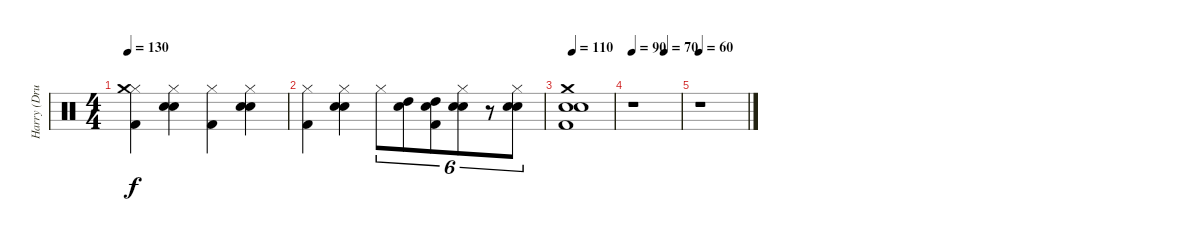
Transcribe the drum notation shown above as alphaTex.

\track ("Harry (Drums)" "Harry (Dru") {instrument percussion}
\staff {score}
\articulation defaults
\ts (4 4)
\tempo 130
\clef neutral
\ks c
("Hi-Hat (closed)" "Kick (hit) 2" "Crash medium (hit)").4{dy f} ("Hi-Hat (closed)" "Snare (hit) 2" "Electric Snare (hit)").4 ("Hi-Hat (closed)" "Kick (hit) 2").4 ("Hi-Hat (closed)" "Snare (hit) 2" "Electric Snare (hit)").4 |
("Hi-Hat (closed)" "Kick (hit) 2").4 ("Hi-Hat (closed)" "Snare (hit) 2" "Electric Snare (hit)").4 "Hi-Hat (closed)".8{tu (6 4)} ("High Tom (hit)" "Electric Snare (hit)").8{tu (6 4)} ("High Tom (hit)" "Kick (hit) 2" "Electric Snare (hit)").8{tu (6 4)} ("Snare (hit) 2" "Electric Snare (hit)" "Hi-Hat (closed)").8{tu (6 4)} r.8{tu (6 4)} ("Snare (hit) 2" "Electric Snare (hit)" "Hi-Hat (closed)").8{tu (6 4)} |
\tempo 110
("Crash medium (hit)" "Kick (hit) 2" "Snare (hit) 2" "Electric Snare (hit)").1 |
\tempo 90
\tempo (70 0.6666666666666666)
r.1 |
\tempo 60
r.1
